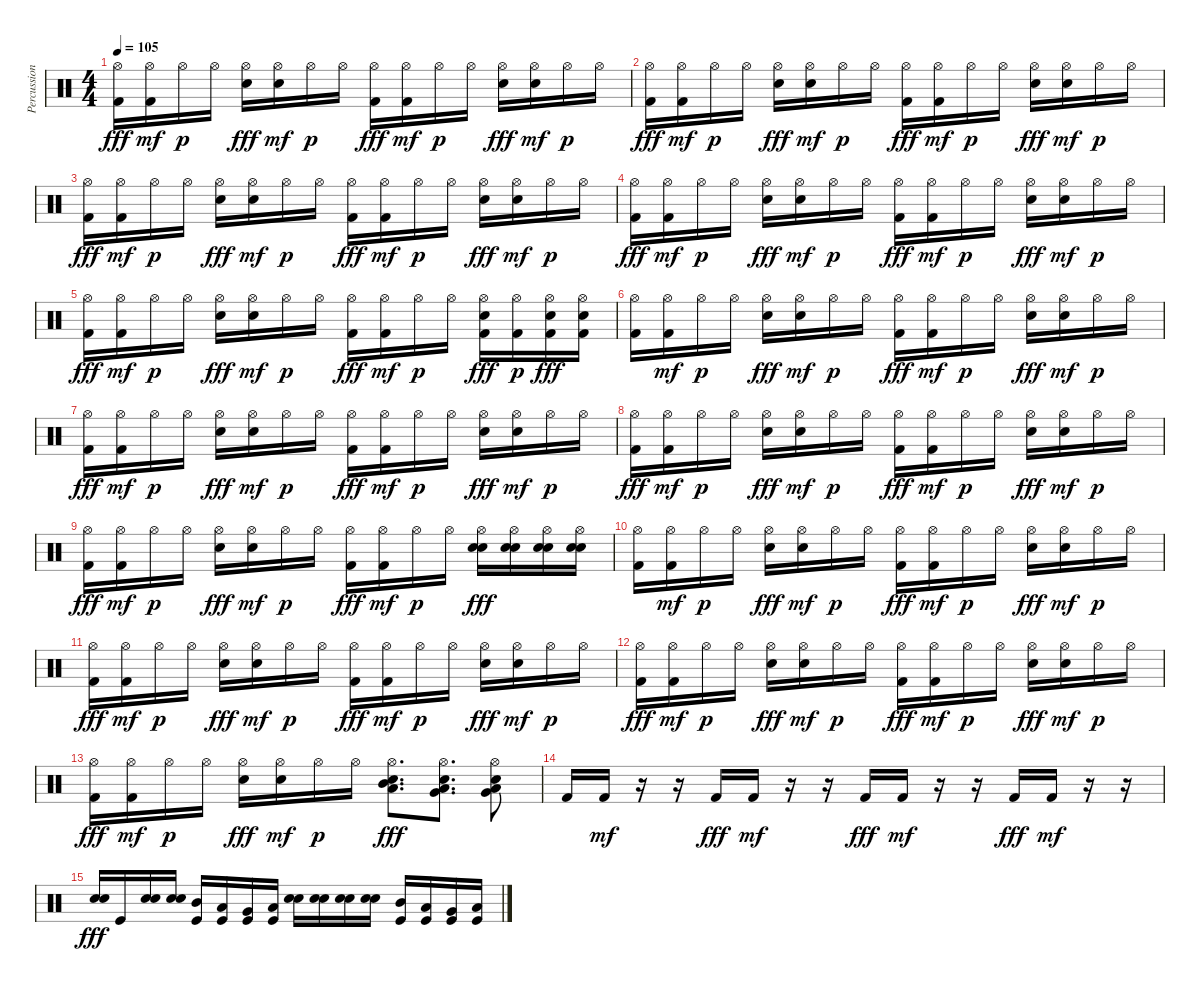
\track ("Percussion" "Percussion") {instrument percussion}
\staff {score}
\articulation defaults
\ts (4 4)
\tempo 105
\clef neutral
\ks c
("Hi-Hat (open)" "Kick (hit) 2").16{dy fff} ("Hi-Hat (open)" "Kick (hit) 2").16{dy mf} "Hi-Hat (open)".16{dy p} "Hi-Hat (open)".16 ("Hi-Hat (open)" "Snare (hit) 2").16{dy fff} ("Hi-Hat (open)" "Snare (hit) 2").16{dy mf} "Hi-Hat (open)".16{dy p} "Hi-Hat (open)".16 ("Hi-Hat (open)" "Kick (hit) 2").16{dy fff} ("Hi-Hat (open)" "Kick (hit) 2").16{dy mf} "Hi-Hat (open)".16{dy p} "Hi-Hat (open)".16 ("Hi-Hat (open)" "Snare (hit) 2").16{dy fff} ("Hi-Hat (open)" "Snare (hit) 2").16{dy mf} "Hi-Hat (open)".16{dy p} "Hi-Hat (open)".16 |
("Hi-Hat (open)" "Kick (hit) 2").16{dy fff} ("Hi-Hat (open)" "Kick (hit) 2").16{dy mf} "Hi-Hat (open)".16{dy p} "Hi-Hat (open)".16 ("Hi-Hat (open)" "Snare (hit) 2").16{dy fff} ("Hi-Hat (open)" "Snare (hit) 2").16{dy mf} "Hi-Hat (open)".16{dy p} "Hi-Hat (open)".16 ("Hi-Hat (open)" "Kick (hit) 2").16{dy fff} ("Hi-Hat (open)" "Kick (hit) 2").16{dy mf} "Hi-Hat (open)".16{dy p} "Hi-Hat (open)".16 ("Hi-Hat (open)" "Snare (hit) 2").16{dy fff} ("Hi-Hat (open)" "Snare (hit) 2").16{dy mf} "Hi-Hat (open)".16{dy p} "Hi-Hat (open)".16 |
("Hi-Hat (open)" "Kick (hit) 2").16{dy fff} ("Hi-Hat (open)" "Kick (hit) 2").16{dy mf} "Hi-Hat (open)".16{dy p} "Hi-Hat (open)".16 ("Hi-Hat (open)" "Snare (hit) 2").16{dy fff} ("Hi-Hat (open)" "Snare (hit) 2").16{dy mf} "Hi-Hat (open)".16{dy p} "Hi-Hat (open)".16 ("Hi-Hat (open)" "Kick (hit) 2").16{dy fff} ("Hi-Hat (open)" "Kick (hit) 2").16{dy mf} "Hi-Hat (open)".16{dy p} "Hi-Hat (open)".16 ("Hi-Hat (open)" "Snare (hit) 2").16{dy fff} ("Hi-Hat (open)" "Snare (hit) 2").16{dy mf} "Hi-Hat (open)".16{dy p} "Hi-Hat (open)".16 |
("Hi-Hat (open)" "Kick (hit) 2").16{dy fff} ("Hi-Hat (open)" "Kick (hit) 2").16{dy mf} "Hi-Hat (open)".16{dy p} "Hi-Hat (open)".16 ("Hi-Hat (open)" "Snare (hit) 2").16{dy fff} ("Hi-Hat (open)" "Snare (hit) 2").16{dy mf} "Hi-Hat (open)".16{dy p} "Hi-Hat (open)".16 ("Hi-Hat (open)" "Kick (hit) 2").16{dy fff} ("Hi-Hat (open)" "Kick (hit) 2").16{dy mf} "Hi-Hat (open)".16{dy p} "Hi-Hat (open)".16 ("Hi-Hat (open)" "Snare (hit) 2").16{dy fff} ("Hi-Hat (open)" "Snare (hit) 2").16{dy mf} "Hi-Hat (open)".16{dy p} "Hi-Hat (open)".16 |
("Hi-Hat (open)" "Kick (hit) 2").16{dy fff} ("Hi-Hat (open)" "Kick (hit) 2").16{dy mf} "Hi-Hat (open)".16{dy p} "Hi-Hat (open)".16 ("Hi-Hat (open)" "Snare (hit) 2").16{dy fff} ("Hi-Hat (open)" "Snare (hit) 2").16{dy mf} "Hi-Hat (open)".16{dy p} "Hi-Hat (open)".16 ("Hi-Hat (open)" "Kick (hit) 2").16{dy fff} ("Hi-Hat (open)" "Kick (hit) 2").16{dy mf} "Hi-Hat (open)".16{dy p} "Hi-Hat (open)".16 ("Hi-Hat (open)" "Snare (hit) 2" "Kick (hit) 2").16{dy fff} ("Hi-Hat (open)" "Kick (hit) 2").16{dy p} ("Hi-Hat (open)" "Snare (hit) 2" "Kick (hit) 2").16{dy fff} ("Hi-Hat (open)" "Snare (hit) 2" "Kick (hit) 2").16 |
("Hi-Hat (open)" "Kick (hit) 2").16 ("Hi-Hat (open)" "Kick (hit) 2").16{dy mf} "Hi-Hat (open)".16{dy p} "Hi-Hat (open)".16 ("Hi-Hat (open)" "Snare (hit) 2").16{dy fff} ("Hi-Hat (open)" "Snare (hit) 2").16{dy mf} "Hi-Hat (open)".16{dy p} "Hi-Hat (open)".16 ("Hi-Hat (open)" "Kick (hit) 2").16{dy fff} ("Hi-Hat (open)" "Kick (hit) 2").16{dy mf} "Hi-Hat (open)".16{dy p} "Hi-Hat (open)".16 ("Hi-Hat (open)" "Snare (hit) 2").16{dy fff} ("Hi-Hat (open)" "Snare (hit) 2").16{dy mf} "Hi-Hat (open)".16{dy p} "Hi-Hat (open)".16 |
("Hi-Hat (open)" "Kick (hit) 2").16{dy fff} ("Hi-Hat (open)" "Kick (hit) 2").16{dy mf} "Hi-Hat (open)".16{dy p} "Hi-Hat (open)".16 ("Hi-Hat (open)" "Snare (hit) 2").16{dy fff} ("Hi-Hat (open)" "Snare (hit) 2").16{dy mf} "Hi-Hat (open)".16{dy p} "Hi-Hat (open)".16 ("Hi-Hat (open)" "Kick (hit) 2").16{dy fff} ("Hi-Hat (open)" "Kick (hit) 2").16{dy mf} "Hi-Hat (open)".16{dy p} "Hi-Hat (open)".16 ("Hi-Hat (open)" "Snare (hit) 2").16{dy fff} ("Hi-Hat (open)" "Snare (hit) 2").16{dy mf} "Hi-Hat (open)".16{dy p} "Hi-Hat (open)".16 |
("Hi-Hat (open)" "Kick (hit) 2").16{dy fff} ("Hi-Hat (open)" "Kick (hit) 2").16{dy mf} "Hi-Hat (open)".16{dy p} "Hi-Hat (open)".16 ("Hi-Hat (open)" "Snare (hit) 2").16{dy fff} ("Hi-Hat (open)" "Snare (hit) 2").16{dy mf} "Hi-Hat (open)".16{dy p} "Hi-Hat (open)".16 ("Hi-Hat (open)" "Kick (hit) 2").16{dy fff} ("Hi-Hat (open)" "Kick (hit) 2").16{dy mf} "Hi-Hat (open)".16{dy p} "Hi-Hat (open)".16 ("Hi-Hat (open)" "Snare (hit) 2").16{dy fff} ("Hi-Hat (open)" "Snare (hit) 2").16{dy mf} "Hi-Hat (open)".16{dy p} "Hi-Hat (open)".16 |
("Hi-Hat (open)" "Kick (hit) 2").16{dy fff} ("Hi-Hat (open)" "Kick (hit) 2").16{dy mf} "Hi-Hat (open)".16{dy p} "Hi-Hat (open)".16 ("Hi-Hat (open)" "Snare (hit) 2").16{dy fff} ("Hi-Hat (open)" "Snare (hit) 2").16{dy mf} "Hi-Hat (open)".16{dy p} "Hi-Hat (open)".16 ("Hi-Hat (open)" "Kick (hit) 2").16{dy fff} ("Hi-Hat (open)" "Kick (hit) 2").16{dy mf} "Hi-Hat (open)".16{dy p} "Hi-Hat (open)".16 ("Hi-Hat (open)" "Electric Snare (hit)" "Snare (hit) 2").16{dy fff} ("Hi-Hat (open)" "Electric Snare (hit)" "Snare (hit) 2").16 ("Hi-Hat (open)" "Electric Snare (hit)" "Snare (hit) 2").16 ("Hi-Hat (open)" "Electric Snare (hit)" "Snare (hit) 2").16 |
("Hi-Hat (open)" "Kick (hit) 2").16 ("Hi-Hat (open)" "Kick (hit) 2").16{dy mf} "Hi-Hat (open)".16{dy p} "Hi-Hat (open)".16 ("Hi-Hat (open)" "Snare (hit) 2").16{dy fff} ("Hi-Hat (open)" "Snare (hit) 2").16{dy mf} "Hi-Hat (open)".16{dy p} "Hi-Hat (open)".16 ("Hi-Hat (open)" "Kick (hit) 2").16{dy fff} ("Hi-Hat (open)" "Kick (hit) 2").16{dy mf} "Hi-Hat (open)".16{dy p} "Hi-Hat (open)".16 ("Hi-Hat (open)" "Snare (hit) 2").16{dy fff} ("Hi-Hat (open)" "Snare (hit) 2").16{dy mf} "Hi-Hat (open)".16{dy p} "Hi-Hat (open)".16 |
("Hi-Hat (open)" "Kick (hit) 2").16{dy fff} ("Hi-Hat (open)" "Kick (hit) 2").16{dy mf} "Hi-Hat (open)".16{dy p} "Hi-Hat (open)".16 ("Hi-Hat (open)" "Snare (hit) 2").16{dy fff} ("Hi-Hat (open)" "Snare (hit) 2").16{dy mf} "Hi-Hat (open)".16{dy p} "Hi-Hat (open)".16 ("Hi-Hat (open)" "Kick (hit) 2").16{dy fff} ("Hi-Hat (open)" "Kick (hit) 2").16{dy mf} "Hi-Hat (open)".16{dy p} "Hi-Hat (open)".16 ("Hi-Hat (open)" "Snare (hit) 2").16{dy fff} ("Hi-Hat (open)" "Snare (hit) 2").16{dy mf} "Hi-Hat (open)".16{dy p} "Hi-Hat (open)".16 |
("Hi-Hat (open)" "Kick (hit) 2").16{dy fff} ("Hi-Hat (open)" "Kick (hit) 2").16{dy mf} "Hi-Hat (open)".16{dy p} "Hi-Hat (open)".16 ("Hi-Hat (open)" "Snare (hit) 2").16{dy fff} ("Hi-Hat (open)" "Snare (hit) 2").16{dy mf} "Hi-Hat (open)".16{dy p} "Hi-Hat (open)".16 ("Hi-Hat (open)" "Kick (hit) 2").16{dy fff} ("Hi-Hat (open)" "Kick (hit) 2").16{dy mf} "Hi-Hat (open)".16{dy p} "Hi-Hat (open)".16 ("Hi-Hat (open)" "Snare (hit) 2").16{dy fff} ("Hi-Hat (open)" "Snare (hit) 2").16{dy mf} "Hi-Hat (open)".16{dy p} "Hi-Hat (open)".16 |
("Hi-Hat (open)" "Kick (hit) 2").16{dy fff} ("Hi-Hat (open)" "Kick (hit) 2").16{dy mf} "Hi-Hat (open)".16{dy p} "Hi-Hat (open)".16 ("Hi-Hat (open)" "Snare (hit) 2").16{dy fff} ("Hi-Hat (open)" "Snare (hit) 2").16{dy mf} "Hi-Hat (open)".16{dy p} "Hi-Hat (open)".16 ("Hi-Hat (open)" "Low Tom (hit)" "Electric Snare (hit)" "Mid Tom (hit)").8{d dy fff} ("Hi-Hat (open)" "Very Low Tom (hit)" "Electric Snare (hit)" "Low Tom (hit)").8{d} ("Hi-Hat (open)" "Low Floor Tom (hit)" "Electric Snare (hit)" "Very Low Tom (hit)").8 |
"Kick (hit) 2".16 "Kick (hit) 2".16{dy mf} r.16 r.16 "Kick (hit) 2".16{dy fff} "Kick (hit) 2".16{dy mf} r.16 r.16 "Kick (hit) 2".16{dy fff} "Kick (hit) 2".16{dy mf} r.16 r.16 "Kick (hit) 2".16{dy fff} "Kick (hit) 2".16{dy mf} r.16 r.16 |
("Electric Snare (hit)" "Snare (hit) 2").16{dy fff} "Kick (hit)".16 ("Electric Snare (hit)" "Snare (hit) 2").16 ("Electric Snare (hit)" "Snare (hit) 2").16 ("Mid Tom (hit)" "Kick (hit)").16 ("Low Tom (hit)" "Kick (hit)").16 ("Very Low Tom (hit)" "Kick (hit)").16 ("Low Floor Tom (hit)" "Kick (hit)").16 ("Electric Snare (hit)" "Snare (hit) 2").16 ("Electric Snare (hit)" "Snare (hit) 2").16 ("Electric Snare (hit)" "Snare (hit) 2").16 ("Electric Snare (hit)" "Snare (hit) 2").16 ("Mid Tom (hit)" "Kick (hit)").16 ("Low Tom (hit)" "Kick (hit)").16 ("Very Low Tom (hit)" "Kick (hit)").16 ("Low Floor Tom (hit)" "Kick (hit)").16
